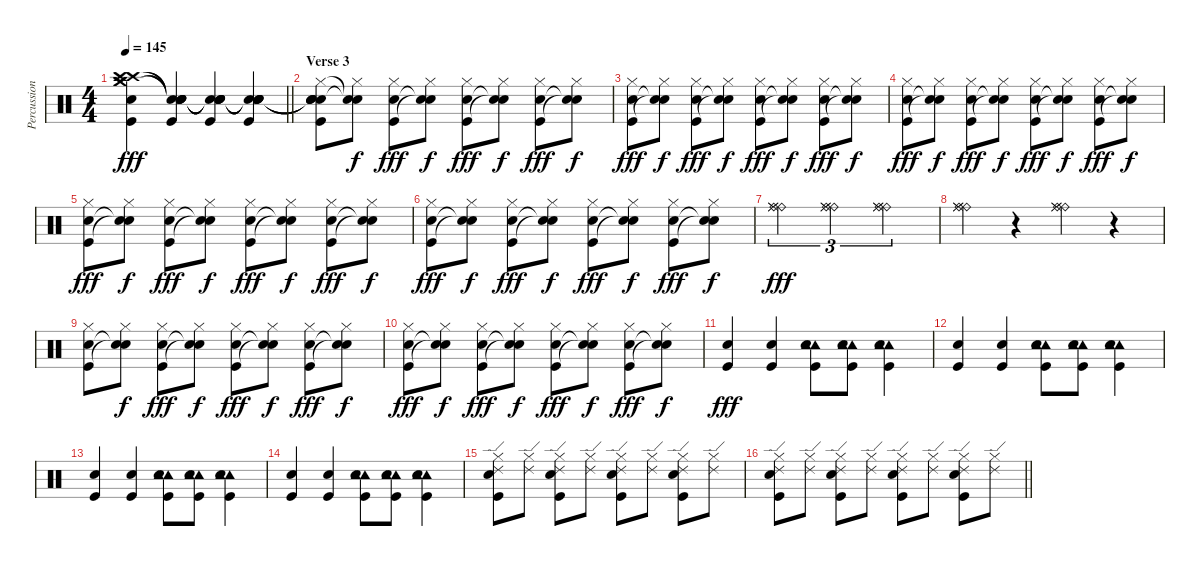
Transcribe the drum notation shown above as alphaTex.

\track ("Percussion" "Percussion") {instrument percussion}
\staff {score}
\articulation defaults
\ts (4 4)
\tempo 145
\clef neutral
\barLineRight lightlight
\ks c
("Crash medium (hit)" "Crash high (hit)" "Snare (hit) 2" "Kick (hit)" "Crash high (hit)" "Crash medium (hit)").4{dy fff} ("Snare (hit)"{t} "Snare (hit)"{t} "Snare (hit) 2" "Kick (hit)" "Snare (hit)"{t} "Snare (hit)"{t}).4 ("Snare (hit)"{t} "Snare (hit)"{t} "Snare (hit) 2" "Kick (hit)" "Snare (hit)"{t} "Snare (hit)"{t}).4 ("Snare (hit)"{t} "Snare (hit)"{t} "Snare (hit) 2" "Kick (hit)" "Snare (hit)"{t} "Snare (hit)"{t}).4 |
\section ("" "Verse 3")
("Snare (hit)"{t} "Hi-Hat (closed)" "Snare (hit) 2" "Kick (hit)" "Snare (hit)"{t} "Snare (hit)"{t}).8 ("Hi-Hat (closed)" "Snare (hit)"{t} "Snare (hit)"{t}).8{dy f} ("Hi-Hat (closed)" "Snare (hit) 2" "Kick (hit)").8{dy fff} ("Hi-Hat (closed)" "Snare (hit)"{t} "Snare (hit)"{t}).8{dy f} ("Hi-Hat (closed)" "Snare (hit) 2" "Kick (hit)").8{dy fff} ("Hi-Hat (closed)" "Snare (hit)"{t} "Snare (hit)"{t}).8{dy f} ("Hi-Hat (closed)" "Snare (hit) 2" "Kick (hit)").8{dy fff} ("Hi-Hat (closed)" "Snare (hit)"{t} "Snare (hit)"{t}).8{dy f} |
("Hi-Hat (closed)" "Snare (hit) 2" "Kick (hit)").8{dy fff} ("Hi-Hat (closed)" "Snare (hit)"{t} "Snare (hit)"{t}).8{dy f} ("Hi-Hat (closed)" "Snare (hit) 2" "Kick (hit)").8{dy fff} ("Hi-Hat (closed)" "Snare (hit)"{t} "Snare (hit)"{t}).8{dy f} ("Hi-Hat (closed)" "Snare (hit) 2" "Kick (hit)").8{dy fff} ("Hi-Hat (closed)" "Snare (hit)"{t} "Snare (hit)"{t}).8{dy f} ("Hi-Hat (closed)" "Snare (hit) 2" "Kick (hit)").8{dy fff} ("Hi-Hat (closed)" "Snare (hit)"{t} "Snare (hit)"{t}).8{dy f} |
("Hi-Hat (closed)" "Snare (hit) 2" "Kick (hit)").8{dy fff} ("Hi-Hat (closed)" "Snare (hit)"{t} "Snare (hit)"{t}).8{dy f} ("Hi-Hat (closed)" "Snare (hit) 2" "Kick (hit)").8{dy fff} ("Hi-Hat (closed)" "Snare (hit)"{t} "Snare (hit)"{t}).8{dy f} ("Hi-Hat (closed)" "Snare (hit) 2" "Kick (hit)").8{dy fff} ("Hi-Hat (closed)" "Snare (hit)"{t} "Snare (hit)"{t}).8{dy f} ("Hi-Hat (closed)" "Snare (hit) 2" "Kick (hit)").8{dy fff} ("Hi-Hat (closed)" "Snare (hit)"{t} "Snare (hit)"{t}).8{dy f} |
("Hi-Hat (closed)" "Snare (hit) 2" "Kick (hit)").8{dy fff} ("Hi-Hat (closed)" "Snare (hit)"{t} "Snare (hit)"{t}).8{dy f} ("Hi-Hat (closed)" "Snare (hit) 2" "Kick (hit)").8{dy fff} ("Hi-Hat (closed)" "Snare (hit)"{t} "Snare (hit)"{t}).8{dy f} ("Hi-Hat (closed)" "Snare (hit) 2" "Kick (hit)").8{dy fff} ("Hi-Hat (closed)" "Snare (hit)"{t} "Snare (hit)"{t}).8{dy f} ("Hi-Hat (closed)" "Snare (hit) 2" "Kick (hit)").8{dy fff} ("Hi-Hat (closed)" "Snare (hit)"{t} "Snare (hit)"{t}).8{dy f} |
("Hi-Hat (closed)" "Snare (hit) 2" "Kick (hit)").8{dy fff} ("Hi-Hat (closed)" "Snare (hit)"{t} "Snare (hit)"{t}).8{dy f} ("Hi-Hat (closed)" "Snare (hit) 2" "Kick (hit)").8{dy fff} ("Hi-Hat (closed)" "Snare (hit)"{t} "Snare (hit)"{t}).8{dy f} ("Hi-Hat (closed)" "Snare (hit) 2" "Kick (hit)").8{dy fff} ("Hi-Hat (closed)" "Snare (hit)"{t} "Snare (hit)"{t}).8{dy f} ("Hi-Hat (closed)" "Snare (hit) 2" "Kick (hit)").8{dy fff} ("Hi-Hat (closed)" "Snare (hit)"{t} "Snare (hit)"{t}).8{dy f} |
("Ride (bell)" "Ride (bell)" "Ride (middle)" "Ride (middle)").2{tu (3 2) dy fff volume 16} ("Ride (bell)" "Ride (bell)" "Ride (middle)" "Ride (middle)").2{tu (3 2)} ("Ride (bell)" "Ride (bell)" "Ride (middle)" "Ride (middle)").2{tu (3 2)} |
("Ride (bell)" "Ride (bell)" "Ride (middle)" "Ride (middle)").4 r.4 ("Ride (bell)" "Ride (bell)" "Ride (middle)" "Ride (middle)").4 r.4 |
("Hi-Hat (closed)" "Snare (hit) 2" "Kick (hit)").8{volume 12} ("Hi-Hat (closed)" "Snare (hit)"{t} "Snare (hit)"{t}).8{dy f} ("Hi-Hat (closed)" "Snare (hit) 2" "Kick (hit)").8{dy fff} ("Hi-Hat (closed)" "Snare (hit)"{t} "Snare (hit)"{t}).8{dy f} ("Hi-Hat (closed)" "Snare (hit) 2" "Kick (hit)").8{dy fff} ("Hi-Hat (closed)" "Snare (hit)"{t} "Snare (hit)"{t}).8{dy f} ("Hi-Hat (closed)" "Snare (hit) 2" "Kick (hit)").8{dy fff} ("Hi-Hat (closed)" "Snare (hit)"{t} "Snare (hit)"{t}).8{dy f} |
("Hi-Hat (closed)" "Snare (hit) 2" "Kick (hit)").8{dy fff} ("Hi-Hat (closed)" "Snare (hit)"{t} "Snare (hit)"{t}).8{dy f} ("Hi-Hat (closed)" "Snare (hit) 2" "Kick (hit)").8{dy fff} ("Hi-Hat (closed)" "Snare (hit)"{t} "Snare (hit)"{t}).8{dy f} ("Hi-Hat (closed)" "Snare (hit) 2" "Kick (hit)").8{dy fff} ("Hi-Hat (closed)" "Snare (hit)"{t} "Snare (hit)"{t}).8{dy f} ("Hi-Hat (closed)" "Snare (hit) 2" "Kick (hit)").8{dy fff} ("Hi-Hat (closed)" "Snare (hit)"{t} "Snare (hit)"{t}).8{dy f} |
("Snare (hit) 2" "Kick (hit)").4{dy fff} ("Snare (hit) 2" "Kick (hit)").4 ("Tambourine (hit)" "Tambourine (hit)" "Snare (hit) 2" "Kick (hit)").8 ("Tambourine (hit)" "Tambourine (hit)" "Snare (hit) 2" "Kick (hit)").8 ("Tambourine (hit)" "Tambourine (hit)" "Snare (hit) 2" "Kick (hit)").4 |
("Snare (hit) 2" "Kick (hit)").4 ("Snare (hit) 2" "Kick (hit)").4 ("Tambourine (hit)" "Tambourine (hit)" "Snare (hit) 2" "Kick (hit)").8 ("Tambourine (hit)" "Tambourine (hit)" "Snare (hit) 2" "Kick (hit)").8 ("Tambourine (hit)" "Tambourine (hit)" "Snare (hit) 2" "Kick (hit)").4 |
("Snare (hit) 2" "Kick (hit)").4 ("Snare (hit) 2" "Kick (hit)").4 ("Tambourine (hit)" "Tambourine (hit)" "Snare (hit) 2" "Kick (hit)").8 ("Tambourine (hit)" "Tambourine (hit)" "Snare (hit) 2" "Kick (hit)").8 ("Tambourine (hit)" "Tambourine (hit)" "Snare (hit) 2" "Kick (hit)").4 |
("Snare (hit) 2" "Kick (hit)").4 ("Snare (hit) 2" "Kick (hit)").4 ("Tambourine (hit)" "Tambourine (hit)" "Snare (hit) 2" "Kick (hit)").8 ("Tambourine (hit)" "Tambourine (hit)" "Snare (hit) 2" "Kick (hit)").8 ("Tambourine (hit)" "Tambourine (hit)" "Snare (hit) 2" "Kick (hit)").4 |
("Ride (edge) 2" "Hi-Hat (closed)" "Snare (hit) 2" "Kick (hit)").8 ("Ride (edge) 2" "Hi-Hat (closed)").8 ("Ride (edge) 2" "Hi-Hat (closed)" "Snare (hit) 2" "Kick (hit)").8 ("Ride (edge) 2" "Hi-Hat (closed)").8 ("Ride (edge) 2" "Hi-Hat (closed)" "Snare (hit) 2" "Kick (hit)").8 ("Ride (edge) 2" "Hi-Hat (closed)").8 ("Ride (edge) 2" "Hi-Hat (closed)" "Snare (hit) 2" "Kick (hit)").8 ("Ride (edge) 2" "Hi-Hat (closed)").8 |
\barLineRight lightlight
("Ride (edge) 2" "Hi-Hat (closed)" "Snare (hit) 2" "Kick (hit)").8 ("Ride (edge) 2" "Hi-Hat (closed)").8 ("Ride (edge) 2" "Hi-Hat (closed)" "Snare (hit) 2" "Kick (hit)").8 ("Ride (edge) 2" "Hi-Hat (closed)").8 ("Ride (edge) 2" "Hi-Hat (closed)" "Snare (hit) 2" "Kick (hit)").8 ("Ride (edge) 2" "Hi-Hat (closed)").8 ("Ride (edge) 2" "Hi-Hat (closed)" "Snare (hit) 2" "Kick (hit)").8 ("Ride (edge) 2" "Hi-Hat (closed)").8
